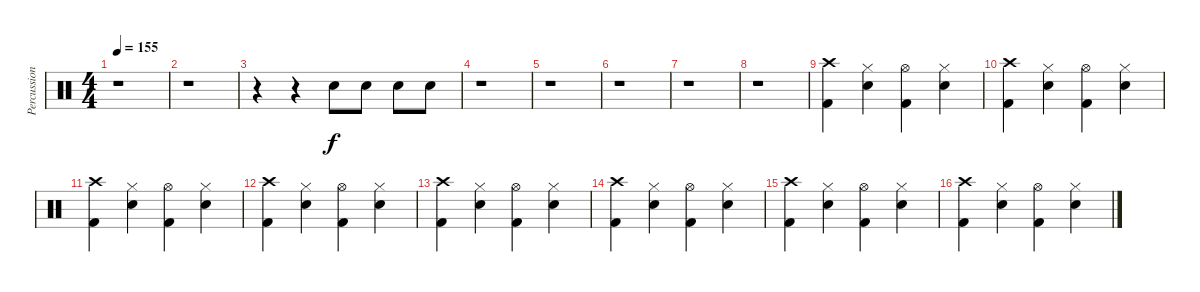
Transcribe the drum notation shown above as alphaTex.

\track ("Percussion" "Percussion") {instrument percussion}
\staff {score}
\articulation defaults
\ts (4 4)
\tempo 155
\clef neutral
\ks c
r.1{dy f} |
r.1 |
r.4 r.4 "Hand Clap (hit)".8 "Hand Clap (hit)".8 "Hand Clap (hit)".8 "Hand Clap (hit)".8 |
r.1 |
r.1 |
r.1 |
r.1 |
r.1 |
("Crash high (hit)" "Kick (hit) 2").4 ("Hi-Hat (closed)" "Snare (hit) 2").4 ("Hi-Hat (open)" "Kick (hit) 2").4 ("Hi-Hat (closed)" "Snare (hit) 2").4 |
("Crash high (hit)" "Kick (hit) 2").4 ("Hi-Hat (closed)" "Snare (hit) 2").4 ("Hi-Hat (open)" "Kick (hit) 2").4 ("Hi-Hat (closed)" "Snare (hit) 2").4 |
("Crash high (hit)" "Kick (hit) 2").4 ("Hi-Hat (closed)" "Snare (hit) 2").4 ("Hi-Hat (open)" "Kick (hit) 2").4 ("Hi-Hat (closed)" "Snare (hit) 2").4 |
("Crash high (hit)" "Kick (hit) 2").4 ("Hi-Hat (closed)" "Snare (hit) 2").4 ("Hi-Hat (open)" "Kick (hit) 2").4 ("Hi-Hat (closed)" "Snare (hit) 2").4 |
("Crash high (hit)" "Kick (hit) 2").4 ("Hi-Hat (closed)" "Snare (hit) 2").4 ("Hi-Hat (open)" "Kick (hit) 2").4 ("Hi-Hat (closed)" "Snare (hit) 2").4 |
("Crash high (hit)" "Kick (hit) 2").4 ("Hi-Hat (closed)" "Snare (hit) 2").4 ("Hi-Hat (open)" "Kick (hit) 2").4 ("Hi-Hat (closed)" "Snare (hit) 2").4 |
("Crash high (hit)" "Kick (hit) 2").4 ("Hi-Hat (closed)" "Snare (hit) 2").4 ("Hi-Hat (open)" "Kick (hit) 2").4 ("Hi-Hat (closed)" "Snare (hit) 2").4 |
("Crash high (hit)" "Kick (hit) 2").4 ("Hi-Hat (closed)" "Snare (hit) 2").4 ("Hi-Hat (open)" "Kick (hit) 2").4 ("Hi-Hat (closed)" "Snare (hit) 2").4
